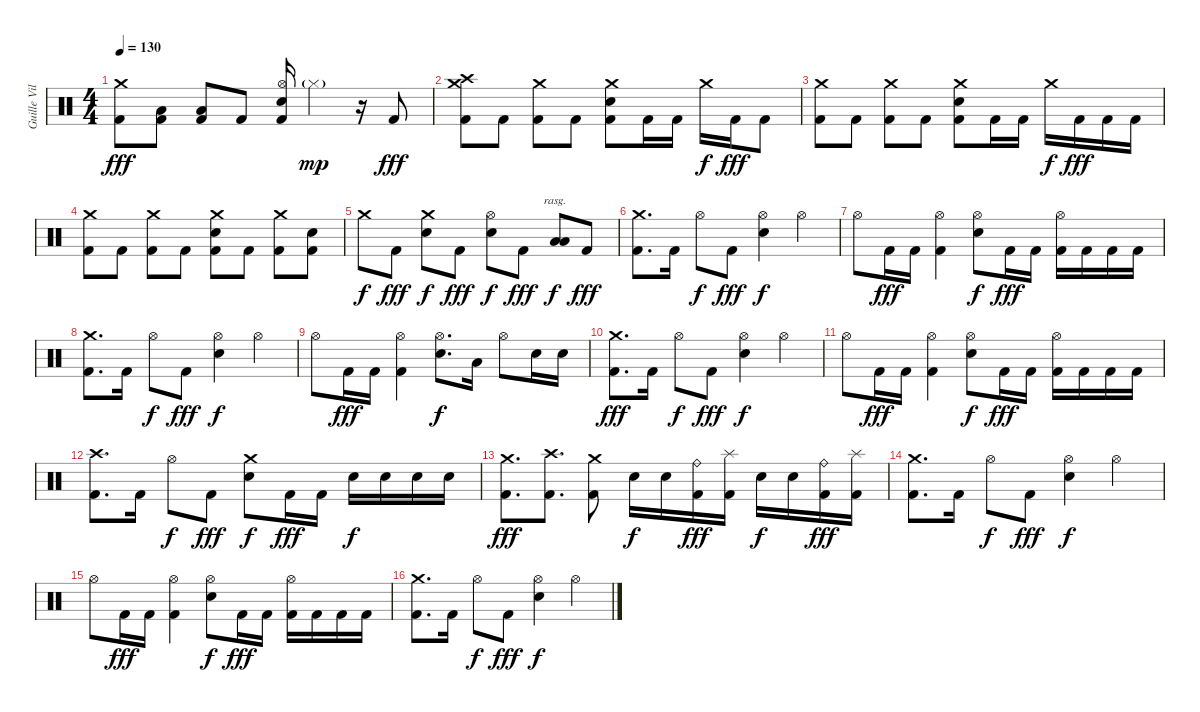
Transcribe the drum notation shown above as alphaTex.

\track ("Guille Vila" "Guille Vil") {instrument percussion}
\staff {score}
\articulation defaults
\ts (4 4)
\tempo 130
\clef neutral
\ks c
("Crash medium (hit)" "Kick (hit) 2").8{dy fff} ("Low Tom (hit)" "Kick (hit) 2").8 ("Low Floor Tom (hit)" "Kick (hit) 2").8 "Kick (hit) 2".8 ("Hi-Hat (open)" "Snare (hit) 2" "Kick (hit) 2").16 "Hi-Hat (closed)"{g}.4{dy mp} r.16 "Kick (hit) 2".8{dy fff} |
("Crash high (hit)" "Crash medium (hit)" "Kick (hit) 2").8 "Kick (hit) 2".8 ("Crash medium (hit)" "Kick (hit) 2").8 "Kick (hit) 2".8 ("Crash medium (hit)" "Snare (hit) 2" "Kick (hit) 2").8 "Kick (hit) 2".16 "Kick (hit) 2".16 "Crash medium (hit)".16{dy f} "Kick (hit) 2".16{dy fff} "Kick (hit) 2".8 |
("Crash medium (hit)" "Kick (hit) 2").8 "Kick (hit) 2".8 ("Crash medium (hit)" "Kick (hit) 2").8 "Kick (hit) 2".8 ("Crash medium (hit)" "Snare (hit) 2" "Kick (hit) 2").8 "Kick (hit) 2".16 "Kick (hit) 2".16 "Crash medium (hit)".16{dy f} "Kick (hit) 2".16{dy fff} "Kick (hit) 2".16 "Kick (hit) 2".16 |
("Crash medium (hit)" "Kick (hit) 2").8 "Kick (hit) 2".8 ("Crash medium (hit)" "Kick (hit) 2").8 "Kick (hit) 2".8 ("Crash medium (hit)" "Snare (hit) 2" "Kick (hit) 2").8 "Kick (hit) 2".8 ("Crash medium (hit)" "Kick (hit) 2").8 ("Snare (hit) 2" "Kick (hit) 2").8 |
"Crash medium (hit)".8{dy f} "Kick (hit) 2".8{dy fff} ("Crash medium (hit)" "Snare (hit) 2").8{dy f} "Kick (hit) 2".8{dy fff} ("Hi-Hat (open)" "Snare (hit) 2").8{dy f} "Kick (hit) 2".8{dy fff} ("Low Tom (hit)" "Low Tom (hit)").8{bd 240 rasg ii dy f} "Kick (hit) 2".8{dy fff} |
("Crash medium (hit)" "Kick (hit) 2").8{d} "Kick (hit) 2".16 "Hi-Hat (open)".8{dy f} "Kick (hit) 2".8{dy fff} ("Hi-Hat (open)" "Snare (hit) 2").4{dy f} "Hi-Hat (open)".4 |
"Hi-Hat (open)".8 "Kick (hit) 2".16{dy fff} "Kick (hit) 2".16 ("Hi-Hat (open)" "Kick (hit) 2").4 ("Hi-Hat (open)" "Snare (hit) 2").8{dy f} "Kick (hit) 2".16{dy fff} "Kick (hit) 2".16 ("Hi-Hat (open)" "Kick (hit) 2").16 "Kick (hit) 2".16 "Kick (hit) 2".16 "Kick (hit) 2".16 |
("Crash medium (hit)" "Kick (hit) 2").8{d} "Kick (hit) 2".16 "Hi-Hat (open)".8{dy f} "Kick (hit) 2".8{dy fff} ("Hi-Hat (open)" "Snare (hit) 2").4{dy f} "Hi-Hat (open)".4 |
"Hi-Hat (open)".8 "Kick (hit) 2".16{dy fff} "Kick (hit) 2".16 ("Hi-Hat (open)" "Kick (hit) 2").4 ("Hi-Hat (open)" "Snare (hit) 2").8{d dy f} "Low Tom (hit)".16 "Hi-Hat (open)".8 "Snare (hit) 2".16 "Snare (hit) 2".16 |
("Crash medium (hit)" "Kick (hit) 2").8{d dy fff} "Kick (hit) 2".16 "Hi-Hat (open)".8{dy f} "Kick (hit) 2".8{dy fff} ("Hi-Hat (open)" "Snare (hit) 2").4{dy f} "Hi-Hat (open)".4 |
"Hi-Hat (open)".8 "Kick (hit) 2".16{dy fff} "Kick (hit) 2".16 ("Hi-Hat (open)" "Kick (hit) 2").4 ("Hi-Hat (open)" "Snare (hit) 2").8{dy f} "Kick (hit) 2".16{dy fff} "Kick (hit) 2".16 ("Hi-Hat (open)" "Kick (hit) 2").16 "Kick (hit) 2".16 "Kick (hit) 2".16 "Kick (hit) 2".16 |
("Crash high (hit)" "Kick (hit) 2").8{d} "Kick (hit) 2".16 "Hi-Hat (open)".8{dy f} "Kick (hit) 2".8{dy fff} ("Crash medium (hit)" "Snare (hit) 2").8{dy f} "Kick (hit) 2".16{dy fff} "Kick (hit) 2".16 "Snare (hit) 2".16{dy f} "Snare (hit) 2".16 "Snare (hit) 2".16 "Snare (hit) 2".16 |
("Crash medium (hit)" "Kick (hit) 2").8{d dy fff} ("Crash high (hit)" "Kick (hit) 2").8{d} ("Crash medium (hit)" "Kick (hit) 2").8 "Snare (hit) 2".16{dy f} "Snare (hit) 2".16 ("Ride (bell)" "Kick (hit) 2").16{dy fff} ("Splash (hit)" "Kick (hit) 2").16 "Snare (hit) 2".16{dy f} "Snare (hit) 2".16 ("Ride (bell)" "Kick (hit) 2").16{dy fff} ("Splash (hit)" "Kick (hit) 2").16 |
("Crash medium (hit)" "Kick (hit) 2").8{d} "Kick (hit) 2".16 "Hi-Hat (open)".8{dy f} "Kick (hit) 2".8{dy fff} ("Hi-Hat (open)" "Snare (hit) 2").4{dy f} "Hi-Hat (open)".4 |
"Hi-Hat (open)".8 "Kick (hit) 2".16{dy fff} "Kick (hit) 2".16 ("Hi-Hat (open)" "Kick (hit) 2").4 ("Hi-Hat (open)" "Snare (hit) 2").8{dy f} "Kick (hit) 2".16{dy fff} "Kick (hit) 2".16 ("Hi-Hat (open)" "Kick (hit) 2").16 "Kick (hit) 2".16 "Kick (hit) 2".16 "Kick (hit) 2".16 |
("Crash medium (hit)" "Kick (hit) 2").8{d} "Kick (hit) 2".16 "Hi-Hat (open)".8{dy f} "Kick (hit) 2".8{dy fff} ("Hi-Hat (open)" "Snare (hit) 2").4{dy f} "Hi-Hat (open)".4
